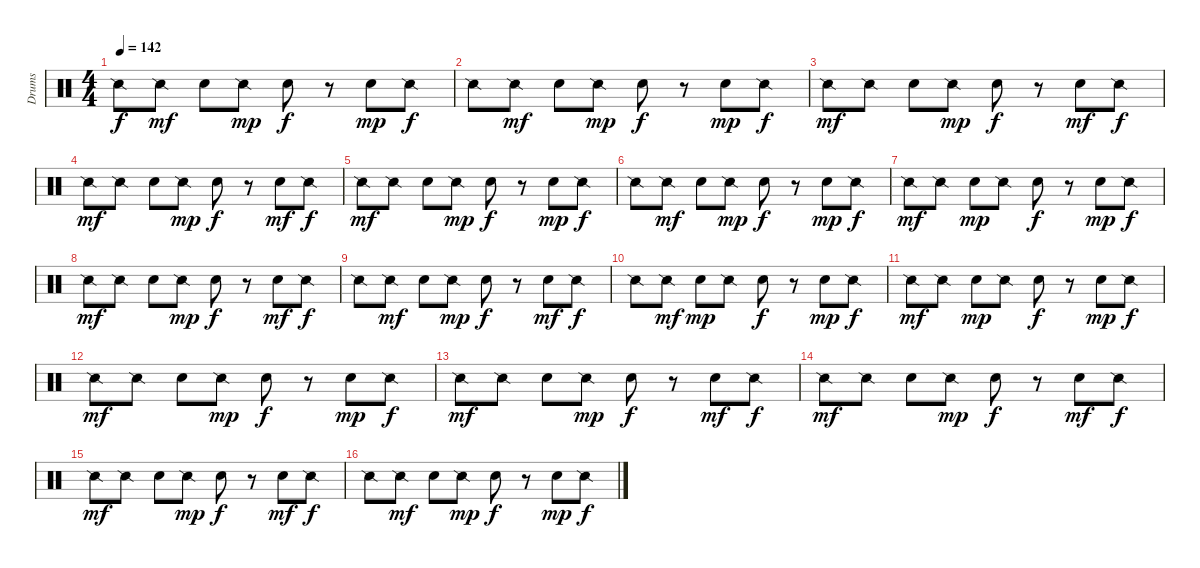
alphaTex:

\track ("Drums" "Drums") {instrument percussion}
\staff {score}
\articulation defaults
\ts (4 4)
\tempo 142
\clef neutral
\ks c "Snare (side stick) 2".8{dy f} "Snare (side stick) 2".8{dy mf} "Electric Snare (hit)".8 "Snare (side stick) 2".8{dy mp} "Electric Snare (hit)".8{dy f}
r.8 "Electric Snare (hit)".8{dy mp} "Snare (side stick) 2".8{dy f} |
"Snare (side stick) 2".8 "Snare (side stick) 2".8{dy mf} "Electric Snare (hit)".8 "Snare (side stick) 2".8{dy mp} "Electric Snare (hit)".8{dy f} r.8 "Electric Snare (hit)".8{dy mp} "Snare (side stick) 2".8{dy f} |
"Snare (side stick) 2".8{dy mf} "Snare (side stick) 2".8 "Electric Snare (hit)".8 "Snare (side stick) 2".8{dy mp} "Electric Snare (hit)".8{dy f} r.8 "Electric Snare (hit)".8{dy mf} "Snare (side stick) 2".8{dy f} |
"Snare (side stick) 2".8{dy mf} "Snare (side stick) 2".8 "Electric Snare (hit)".8 "Snare (side stick) 2".8{dy mp} "Electric Snare (hit)".8{dy f} r.8 "Electric Snare (hit)".8{dy mf} "Snare (side stick) 2".8{dy f} |
"Snare (side stick) 2".8{dy mf} "Snare (side stick) 2".8 "Electric Snare (hit)".8 "Snare (side stick) 2".8{dy mp} "Electric Snare (hit)".8{dy f} r.8 "Electric Snare (hit)".8{dy mp} "Snare (side stick) 2".8{dy f} |
"Snare (side stick) 2".8 "Snare (side stick) 2".8{dy mf} "Electric Snare (hit)".8 "Snare (side stick) 2".8{dy mp} "Electric Snare (hit)".8{dy f} r.8 "Electric Snare (hit)".8{dy mp} "Snare (side stick) 2".8{dy f} |
"Snare (side stick) 2".8{dy mf} "Snare (side stick) 2".8 "Electric Snare (hit)".8{dy mp} "Snare (side stick) 2".8 "Electric Snare (hit)".8{dy f} r.8 "Electric Snare (hit)".8{dy mp} "Snare (side stick) 2".8{dy f} |
"Snare (side stick) 2".8{dy mf} "Snare (side stick) 2".8 "Electric Snare (hit)".8 "Snare (side stick) 2".8{dy mp} "Electric Snare (hit)".8{dy f} r.8 "Electric Snare (hit)".8{dy mf} "Snare (side stick) 2".8{dy f} |
"Snare (side stick) 2".8 "Snare (side stick) 2".8{dy mf} "Electric Snare (hit)".8 "Snare (side stick) 2".8{dy mp} "Electric Snare (hit)".8{dy f} r.8 "Electric Snare (hit)".8{dy mf} "Snare (side stick) 2".8{dy f} |
"Snare (side stick) 2".8 "Snare (side stick) 2".8{dy mf} "Electric Snare (hit)".8{dy mp} "Snare (side stick) 2".8 "Electric Snare (hit)".8{dy f} r.8 "Electric Snare (hit)".8{dy mp} "Snare (side stick) 2".8{dy f} |
"Snare (side stick) 2".8{dy mf} "Snare (side stick) 2".8 "Electric Snare (hit)".8{dy mp} "Snare (side stick) 2".8 "Electric Snare (hit)".8{dy f} r.8 "Electric Snare (hit)".8{dy mp} "Snare (side stick) 2".8{dy f} |
"Snare (side stick) 2".8{dy mf} "Snare (side stick) 2".8 "Electric Snare (hit)".8 "Snare (side stick) 2".8{dy mp} "Electric Snare (hit)".8{dy f} r.8 "Electric Snare (hit)".8{dy mp} "Snare (side stick) 2".8{dy f} |
"Snare (side stick) 2".8{dy mf} "Snare (side stick) 2".8 "Electric Snare (hit)".8 "Snare (side stick) 2".8{dy mp} "Electric Snare (hit)".8{dy f} r.8 "Electric Snare (hit)".8{dy mf} "Snare (side stick) 2".8{dy f} |
"Snare (side stick) 2".8{dy mf} "Snare (side stick) 2".8 "Electric Snare (hit)".8 "Snare (side stick) 2".8{dy mp} "Electric Snare (hit)".8{dy f} r.8 "Electric Snare (hit)".8{dy mf} "Snare (side stick) 2".8{dy f} |
"Snare (side stick) 2".8{dy mf} "Snare (side stick) 2".8 "Electric Snare (hit)".8 "Snare (side stick) 2".8{dy mp} "Electric Snare (hit)".8{dy f} r.8 "Electric Snare (hit)".8{dy mf} "Snare (side stick) 2".8{dy f} |
"Snare (side stick) 2".8 "Snare (side stick) 2".8{dy mf} "Electric Snare (hit)".8 "Snare (side stick) 2".8{dy mp} "Electric Snare (hit)".8{dy f} r.8 "Electric Snare (hit)".8{dy mp} "Snare (side stick) 2".8{dy f}
